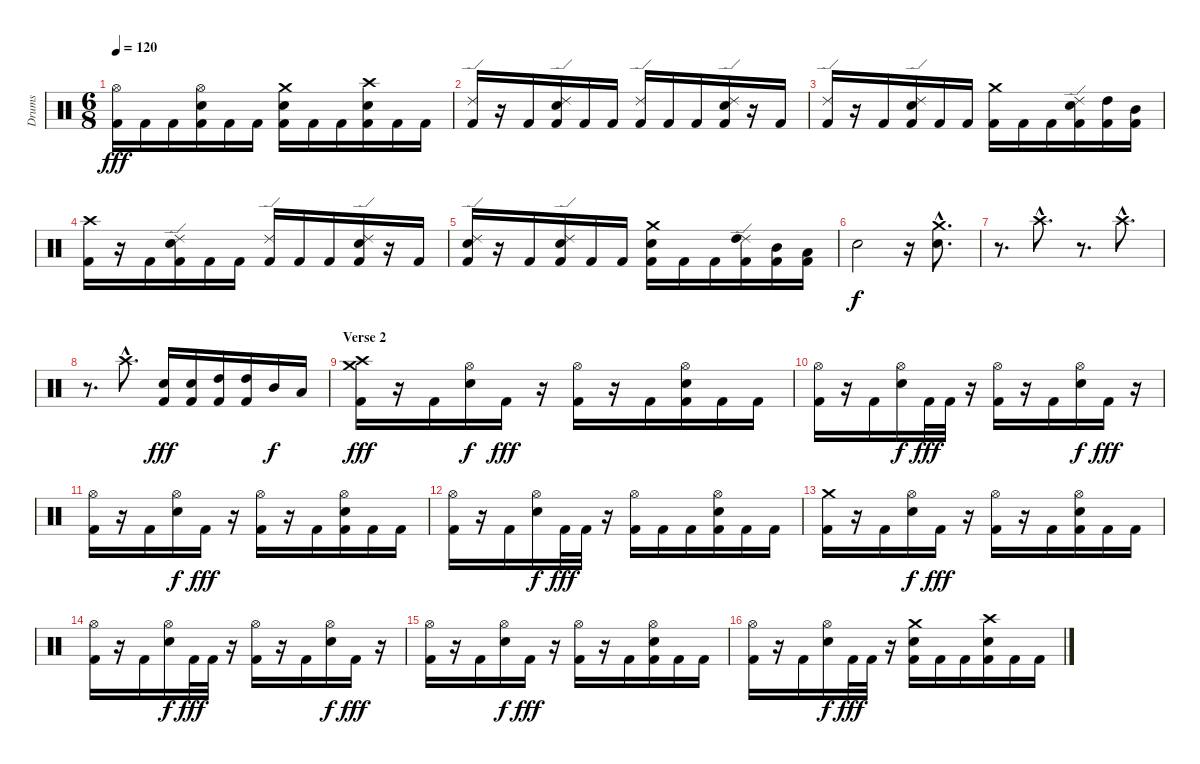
\track ("Drums" "Drums") {instrument percussion}
\staff {score}
\articulation defaults
\ts (6 8)
\tempo 120
\clef neutral
\ks c
("Hi-Hat (open)" "Kick (hit) 2").16{dy fff} "Kick (hit) 2".16 "Kick (hit) 2".16 ("Hi-Hat (open)" "Snare (hit) 2" "Kick (hit) 2").16 "Kick (hit) 2".16 "Kick (hit) 2".16 ("Crash medium (hit)" "Snare (hit) 2" "Kick (hit) 2").16 "Kick (hit) 2".16 "Kick (hit) 2".16 ("Crash high (hit)" "Snare (hit) 2" "Kick (hit) 2").16 "Kick (hit) 2".16 "Kick (hit) 2".16 |
("Ride (edge) 2" "Kick (hit) 2").16 r.16 "Kick (hit) 2".16 ("Ride (edge) 2" "Snare (hit) 2" "Kick (hit) 2").16 "Kick (hit) 2".16 "Kick (hit) 2".16 ("Ride (edge) 2" "Kick (hit) 2").16 "Kick (hit) 2".16 "Kick (hit) 2".16 ("Ride (edge) 2" "Snare (hit) 2" "Kick (hit) 2").16 r.16 "Kick (hit) 2".16 |
("Ride (edge) 2" "Kick (hit) 2").16 r.16 "Kick (hit) 2".16 ("Ride (edge) 2" "Snare (hit) 2" "Kick (hit) 2").16 "Kick (hit) 2".16 "Kick (hit) 2".16 ("Crash medium (hit)" "Kick (hit) 2").16 "Kick (hit) 2".16 "Kick (hit) 2".16 ("Ride (edge) 2" "Snare (hit) 2" "Kick (hit) 2").16 ("High Tom (hit)" "Kick (hit) 2").16 ("Mid Tom (hit)" "Kick (hit) 2").16 |
("Crash high (hit)" "Kick (hit) 2").16 r.16 "Kick (hit) 2".16 ("Ride (edge) 2" "Snare (hit) 2" "Kick (hit) 2").16 "Kick (hit) 2".16 "Kick (hit) 2".16 ("Ride (edge) 2" "Kick (hit) 2").16 "Kick (hit) 2".16 "Kick (hit) 2".16 ("Ride (edge) 2" "Snare (hit) 2" "Kick (hit) 2").16 r.16 "Kick (hit) 2".16 |
("Ride (edge) 2" "Snare (hit) 2" "Kick (hit) 2").16 r.16 "Kick (hit) 2".16 ("Ride (edge) 2" "Snare (hit) 2" "Kick (hit) 2").16 "Kick (hit) 2".16 "Kick (hit) 2".16 ("Crash medium (hit)" "Snare (hit) 2" "Kick (hit) 2").16 "Kick (hit) 2".16 "Kick (hit) 2".16 ("Ride (edge) 2" "High Tom (hit)" "Kick (hit) 2").16 ("Mid Tom (hit)" "Kick (hit) 2").16 ("Low Tom (hit)" "Kick (hit) 2").16 |
"Snare (hit) 2".2{dy f} r.16 ("Crash medium (hit)"{hac} "Snare (hit) 2"{hac}).8{d} |
r.8{d} "Crash high (hit)"{hac}.8{d} r.8{d} "Crash high (hit)"{hac}.8{d} |
r.8{d} "Crash high (hit)"{hac}.8{d} ("Snare (hit) 2" "Kick (hit) 2").16{dy fff} ("Snare (hit) 2" "Kick (hit) 2").16 ("High Tom (hit)" "Kick (hit) 2").16 ("High Tom (hit)" "Kick (hit) 2").16 "Mid Tom (hit)".16{dy f} "Low Tom (hit)".16 |
\section ("" "Verse 2")
("Crash medium (hit)" "Crash high (hit)" "Kick (hit) 2").16{dy fff} r.16 "Kick (hit) 2".16 ("Hi-Hat (open)" "Snare (hit) 2").16{dy f} "Kick (hit) 2".16{dy fff} r.16 ("Hi-Hat (open)" "Kick (hit) 2").16 r.16 "Kick (hit) 2".16 ("Hi-Hat (open)" "Snare (hit) 2" "Kick (hit) 2").16 "Kick (hit) 2".16 "Kick (hit) 2".16 |
("Hi-Hat (open)" "Kick (hit) 2").16 r.16 "Kick (hit) 2".16 ("Hi-Hat (open)" "Snare (hit) 2").16{dy f} "Kick (hit) 2".32{dy fff} "Kick (hit) 2".32 r.16 ("Hi-Hat (open)" "Kick (hit) 2").16 r.16 "Kick (hit) 2".16 ("Hi-Hat (open)" "Snare (hit) 2").16{dy f} "Kick (hit) 2".16{dy fff} r.16 |
("Hi-Hat (open)" "Kick (hit) 2").16 r.16 "Kick (hit) 2".16 ("Hi-Hat (open)" "Snare (hit) 2").16{dy f} "Kick (hit) 2".16{dy fff} r.16 ("Hi-Hat (open)" "Kick (hit) 2").16 r.16 "Kick (hit) 2".16 ("Hi-Hat (open)" "Snare (hit) 2" "Kick (hit) 2").16 "Kick (hit) 2".16 "Kick (hit) 2".16 |
("Hi-Hat (open)" "Kick (hit) 2").16 r.16 "Kick (hit) 2".16 ("Hi-Hat (open)" "Snare (hit) 2").16{dy f} "Kick (hit) 2".32{dy fff} "Kick (hit) 2".32 r.16 ("Hi-Hat (open)" "Kick (hit) 2").16 "Kick (hit) 2".16 "Kick (hit) 2".16 ("Hi-Hat (open)" "Snare (hit) 2" "Kick (hit) 2").16 "Kick (hit) 2".16 "Kick (hit) 2".16 |
("Crash medium (hit)" "Kick (hit) 2").16 r.16 "Kick (hit) 2".16 ("Hi-Hat (open)" "Snare (hit) 2").16{dy f} "Kick (hit) 2".16{dy fff} r.16 ("Hi-Hat (open)" "Kick (hit) 2").16 r.16 "Kick (hit) 2".16 ("Hi-Hat (open)" "Snare (hit) 2" "Kick (hit) 2").16 "Kick (hit) 2".16 "Kick (hit) 2".16 |
("Hi-Hat (open)" "Kick (hit) 2").16 r.16 "Kick (hit) 2".16 ("Hi-Hat (open)" "Snare (hit) 2").16{dy f} "Kick (hit) 2".32{dy fff} "Kick (hit) 2".32 r.16 ("Hi-Hat (open)" "Kick (hit) 2").16 r.16 "Kick (hit) 2".16 ("Hi-Hat (open)" "Snare (hit) 2").16{dy f} "Kick (hit) 2".16{dy fff} r.16 |
("Hi-Hat (open)" "Kick (hit) 2").16 r.16 "Kick (hit) 2".16 ("Hi-Hat (open)" "Snare (hit) 2").16{dy f} "Kick (hit) 2".16{dy fff} r.16 ("Hi-Hat (open)" "Kick (hit) 2").16 r.16 "Kick (hit) 2".16 ("Hi-Hat (open)" "Snare (hit) 2" "Kick (hit) 2").16 "Kick (hit) 2".16 "Kick (hit) 2".16 |
("Hi-Hat (open)" "Kick (hit) 2").16 r.16 "Kick (hit) 2".16 ("Hi-Hat (open)" "Snare (hit) 2").16{dy f} "Kick (hit) 2".32{dy fff} "Kick (hit) 2".32 r.16 ("Crash medium (hit)" "Snare (hit) 2" "Kick (hit) 2").16 "Kick (hit) 2".16 "Kick (hit) 2".16 ("Crash high (hit)" "Snare (hit) 2" "Kick (hit) 2").16 "Kick (hit) 2".16 "Kick (hit) 2".16
